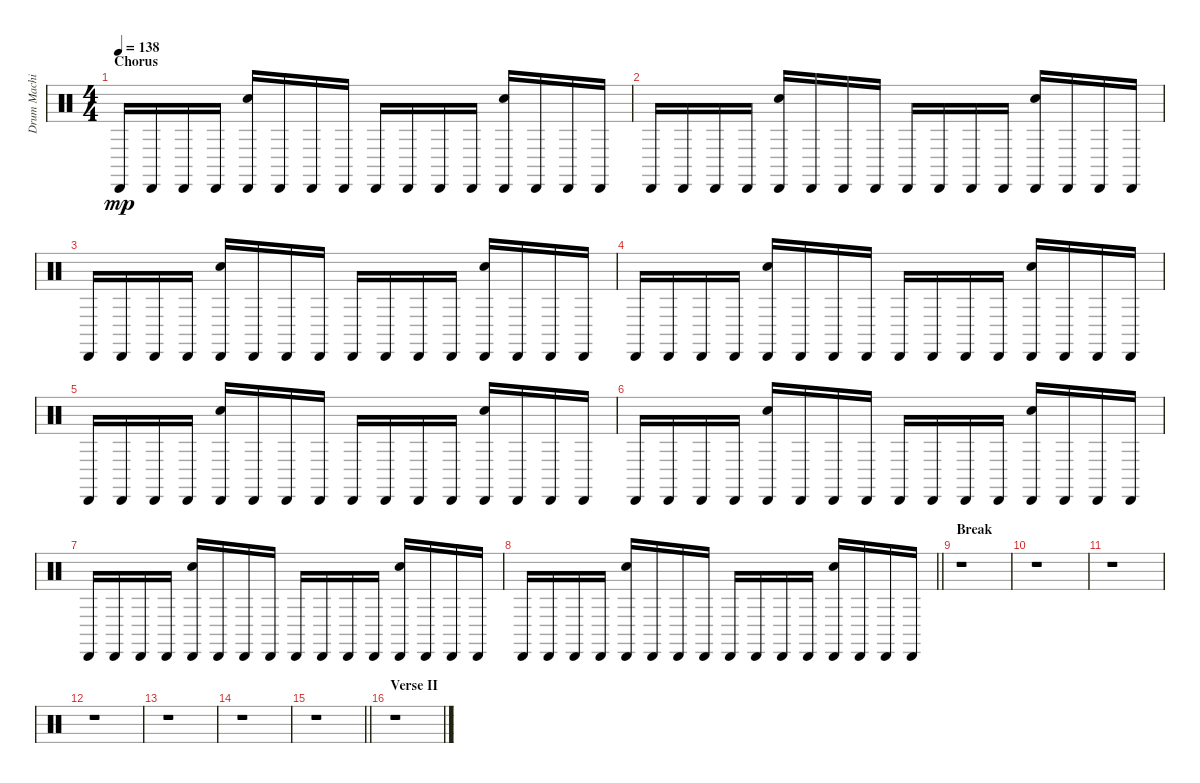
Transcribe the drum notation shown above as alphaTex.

\track ("Drum Machine" "Drum Machi") {instrument percussion}
\staff {score}
\articulation defaults
\ts (4 4)
\section ("" "Chorus")
\tempo 138
\clef neutral
\ks c "Cabasa (hit)".16{dy mp} "Cabasa (hit)".16 "Cabasa (hit)".16 "Cabasa (hit)".16
("Cabasa (hit)" "Hand Clap (hit)").16 "Cabasa (hit)".16 "Cabasa (hit)".16 "Cabasa (hit)".16 "Cabasa (hit)".16 "Cabasa (hit)".16 "Cabasa (hit)".16 "Cabasa (hit)".16 ("Cabasa (hit)" "Hand Clap (hit)").16 "Cabasa (hit)".16 "Cabasa (hit)".16 "Cabasa (hit)".16 |
"Cabasa (hit)".16 "Cabasa (hit)".16 "Cabasa (hit)".16 "Cabasa (hit)".16 ("Cabasa (hit)" "Hand Clap (hit)").16 "Cabasa (hit)".16 "Cabasa (hit)".16 "Cabasa (hit)".16 "Cabasa (hit)".16 "Cabasa (hit)".16 "Cabasa (hit)".16 "Cabasa (hit)".16 ("Cabasa (hit)" "Hand Clap (hit)").16 "Cabasa (hit)".16 "Cabasa (hit)".16 "Cabasa (hit)".16 |
"Cabasa (hit)".16 "Cabasa (hit)".16 "Cabasa (hit)".16 "Cabasa (hit)".16 ("Cabasa (hit)" "Hand Clap (hit)").16 "Cabasa (hit)".16 "Cabasa (hit)".16 "Cabasa (hit)".16 "Cabasa (hit)".16 "Cabasa (hit)".16 "Cabasa (hit)".16 "Cabasa (hit)".16 ("Cabasa (hit)" "Hand Clap (hit)").16 "Cabasa (hit)".16 "Cabasa (hit)".16 "Cabasa (hit)".16 |
"Cabasa (hit)".16 "Cabasa (hit)".16 "Cabasa (hit)".16 "Cabasa (hit)".16 ("Cabasa (hit)" "Hand Clap (hit)").16 "Cabasa (hit)".16 "Cabasa (hit)".16 "Cabasa (hit)".16 "Cabasa (hit)".16 "Cabasa (hit)".16 "Cabasa (hit)".16 "Cabasa (hit)".16 ("Cabasa (hit)" "Hand Clap (hit)").16 "Cabasa (hit)".16 "Cabasa (hit)".16 "Cabasa (hit)".16 |
"Cabasa (hit)".16 "Cabasa (hit)".16 "Cabasa (hit)".16 "Cabasa (hit)".16 ("Cabasa (hit)" "Hand Clap (hit)").16 "Cabasa (hit)".16 "Cabasa (hit)".16 "Cabasa (hit)".16 "Cabasa (hit)".16 "Cabasa (hit)".16 "Cabasa (hit)".16 "Cabasa (hit)".16 ("Cabasa (hit)" "Hand Clap (hit)").16 "Cabasa (hit)".16 "Cabasa (hit)".16 "Cabasa (hit)".16 |
"Cabasa (hit)".16 "Cabasa (hit)".16 "Cabasa (hit)".16 "Cabasa (hit)".16 ("Cabasa (hit)" "Hand Clap (hit)").16 "Cabasa (hit)".16 "Cabasa (hit)".16 "Cabasa (hit)".16 "Cabasa (hit)".16 "Cabasa (hit)".16 "Cabasa (hit)".16 "Cabasa (hit)".16 ("Cabasa (hit)" "Hand Clap (hit)").16 "Cabasa (hit)".16 "Cabasa (hit)".16 "Cabasa (hit)".16 |
"Cabasa (hit)".16 "Cabasa (hit)".16 "Cabasa (hit)".16 "Cabasa (hit)".16 ("Cabasa (hit)" "Hand Clap (hit)").16 "Cabasa (hit)".16 "Cabasa (hit)".16 "Cabasa (hit)".16 "Cabasa (hit)".16 "Cabasa (hit)".16 "Cabasa (hit)".16 "Cabasa (hit)".16 ("Cabasa (hit)" "Hand Clap (hit)").16 "Cabasa (hit)".16 "Cabasa (hit)".16 "Cabasa (hit)".16 |
\barLineRight lightlight "Cabasa (hit)".16 "Cabasa (hit)".16 "Cabasa (hit)".16 "Cabasa (hit)".16
("Cabasa (hit)" "Hand Clap (hit)").16 "Cabasa (hit)".16 "Cabasa (hit)".16 "Cabasa (hit)".16 "Cabasa (hit)".16 "Cabasa (hit)".16 "Cabasa (hit)".16 "Cabasa (hit)".16 ("Cabasa (hit)" "Hand Clap (hit)").16 "Cabasa (hit)".16 "Cabasa (hit)".16 "Cabasa (hit)".16 |
\section ("" "Break")
r.1 |
r.1 |
r.1 |
r.1 |
r.1 |
r.1 |
\barLineRight lightlight
r.1 |
\section ("" "Verse II")
r.1
